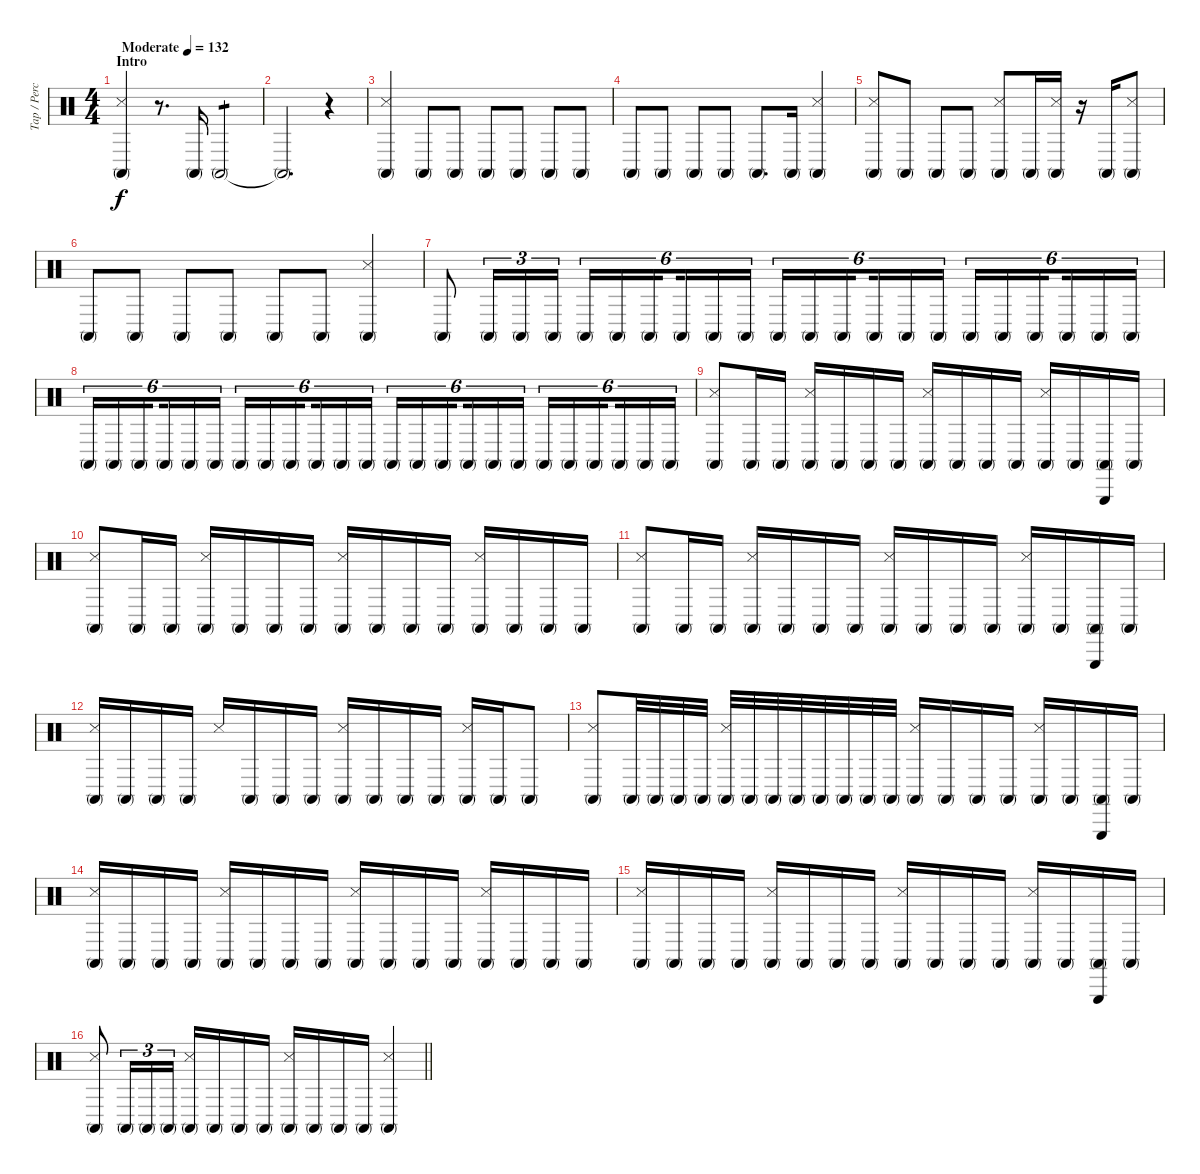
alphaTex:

\track ("Tap / Percussion" "Tap / Perc") {instrument percussion}
\staff {score}
\articulation defaults
\ts (4 4)
\section ("" "Intro")
\tempo (132 "Moderate")
\clef neutral
\ks c
("Conga high (mute)" "Snare (side stick) 3").4{dy f} r.8{d} "Conga high (mute)".16 "Conga high (mute)".2{tp 1} |
"Conga high (mute)"{t}.2{d} r.4 |
("Conga high (mute)" "Snare (side stick) 3").4 "Conga high (mute)".8 "Conga high (mute)".8 "Conga high (mute)".8 "Conga high (mute)".8 "Conga high (mute)".8 "Conga high (mute)".8 |
"Conga high (mute)".8 "Conga high (mute)".8 "Conga high (mute)".8 "Conga high (mute)".8 "Conga high (mute)".8{d} "Conga high (mute)".16 ("Conga high (mute)" "Snare (side stick) 3").4 |
("Conga high (mute)" "Snare (side stick) 3").8 "Conga high (mute)".8 "Conga high (mute)".8 "Conga high (mute)".8 ("Conga high (mute)" "Snare (side stick) 3").8 "Conga high (mute)".16 ("Conga high (mute)" "Snare (side stick) 3").16 r.16 "Conga high (mute)".16 ("Conga high (mute)" "Snare (side stick) 3").8 |
"Conga high (mute)".8 "Conga high (mute)".8 "Conga high (mute)".8 "Conga high (mute)".8 "Conga high (mute)".8 "Conga high (mute)".8 ("Conga high (mute)" "Snare (side stick) 3").4 |
"Conga high (mute)".8 "Conga high (mute)".16{tu (3 2)} "Conga high (mute)".16{tu (3 2)} "Conga high (mute)".16{tu (3 2)} "Conga high (mute)".16{tu (6 4)} "Conga high (mute)".16{tu (6 4)} "Conga high (mute)".16{tu (6 4) beam splitsecondary} "Conga high (mute)".16{tu (6 4)} "Conga high (mute)".16{tu (6 4)} "Conga high (mute)".16{tu (6 4)} "Conga high (mute)".16{tu (6 4)} "Conga high (mute)".16{tu (6 4)} "Conga high (mute)".16{tu (6 4) beam splitsecondary} "Conga high (mute)".16{tu (6 4)} "Conga high (mute)".16{tu (6 4)} "Conga high (mute)".16{tu (6 4)} "Conga high (mute)".16{tu (6 4)} "Conga high (mute)".16{tu (6 4)} "Conga high (mute)".16{tu (6 4) beam splitsecondary} "Conga high (mute)".16{tu (6 4)} "Conga high (mute)".16{tu (6 4)} "Conga high (mute)".16{tu (6 4)} |
"Conga high (mute)".16{tu (6 4)} "Conga high (mute)".16{tu (6 4)} "Conga high (mute)".16{tu (6 4) beam splitsecondary} "Conga high (mute)".16{tu (6 4)} "Conga high (mute)".16{tu (6 4)} "Conga high (mute)".16{tu (6 4)} "Conga high (mute)".16{tu (6 4)} "Conga high (mute)".16{tu (6 4)} "Conga high (mute)".16{tu (6 4) beam splitsecondary} "Conga high (mute)".16{tu (6 4)} "Conga high (mute)".16{tu (6 4)} "Conga high (mute)".16{tu (6 4)} "Conga high (mute)".16{tu (6 4)} "Conga high (mute)".16{tu (6 4)} "Conga high (mute)".16{tu (6 4) beam splitsecondary} "Conga high (mute)".16{tu (6 4)} "Conga high (mute)".16{tu (6 4)} "Conga high (mute)".16{tu (6 4)} "Conga high (mute)".16{tu (6 4)} "Conga high (mute)".16{tu (6 4)} "Conga high (mute)".16{tu (6 4) beam splitsecondary} "Conga high (mute)".16{tu (6 4)} "Conga high (mute)".16{tu (6 4)} "Conga high (mute)".16{tu (6 4)} |
("Conga high (mute)" "Snare (side stick) 3").8 "Conga high (mute)".16 "Conga high (mute)".16 ("Conga high (mute)" "Snare (side stick) 3").16 "Conga high (mute)".16 "Conga high (mute)".16 "Conga high (mute)".16 ("Conga high (mute)" "Snare (side stick) 3").16 "Conga high (mute)".16 "Conga high (mute)".16 "Conga high (mute)".16 ("Conga high (mute)" "Snare (side stick) 3").16 "Conga high (mute)".16 ("Conga high (mute)" "Triangle (hit)").16 "Conga high (mute)".16 |
("Conga high (mute)" "Snare (side stick) 3").8 "Conga high (mute)".16 "Conga high (mute)".16 ("Conga high (mute)" "Snare (side stick) 3").16 "Conga high (mute)".16 "Conga high (mute)".16 "Conga high (mute)".16 ("Conga high (mute)" "Snare (side stick) 3").16 "Conga high (mute)".16 "Conga high (mute)".16 "Conga high (mute)".16 ("Conga high (mute)" "Snare (side stick) 3").16 "Conga high (mute)".16 "Conga high (mute)".16 "Conga high (mute)".16 |
("Conga high (mute)" "Snare (side stick) 3").8 "Conga high (mute)".16 "Conga high (mute)".16 ("Conga high (mute)" "Snare (side stick) 3").16 "Conga high (mute)".16 "Conga high (mute)".16 "Conga high (mute)".16 ("Conga high (mute)" "Snare (side stick) 3").16 "Conga high (mute)".16 "Conga high (mute)".16 "Conga high (mute)".16 ("Conga high (mute)" "Snare (side stick) 3").16 "Conga high (mute)".16 ("Conga high (mute)" "Triangle (hit)").16 "Conga high (mute)".16 |
("Conga high (mute)" "Snare (side stick) 3").16 "Conga high (mute)".16 "Conga high (mute)".16 "Conga high (mute)".16 "Snare (side stick) 3".16 "Conga high (mute)".16 "Conga high (mute)".16 "Conga high (mute)".16 ("Conga high (mute)" "Snare (side stick) 3").16 "Conga high (mute)".16 "Conga high (mute)".16 "Conga high (mute)".16 ("Conga high (mute)" "Snare (side stick) 3").16 "Conga high (mute)".16 "Conga high (mute)".8 |
("Conga high (mute)" "Snare (side stick) 3").8 "Conga high (mute)".32 "Conga high (mute)".32 "Conga high (mute)".32 "Conga high (mute)".32 ("Conga high (mute)" "Snare (side stick) 3").32 "Conga high (mute)".32 "Conga high (mute)".32 "Conga high (mute)".32 "Conga high (mute)".32 "Conga high (mute)".32 "Conga high (mute)".32 "Conga high (mute)".32 ("Conga high (mute)" "Snare (side stick) 3").16 "Conga high (mute)".16 "Conga high (mute)".16 "Conga high (mute)".16 ("Conga high (mute)" "Snare (side stick) 3").16 "Conga high (mute)".16 ("Conga high (mute)" "Triangle (hit)").16 "Conga high (mute)".16 |
("Conga high (mute)" "Snare (side stick) 3").16 "Conga high (mute)".16 "Conga high (mute)".16 "Conga high (mute)".16 ("Conga high (mute)" "Snare (side stick) 3").16 "Conga high (mute)".16 "Conga high (mute)".16 "Conga high (mute)".16 ("Conga high (mute)" "Snare (side stick) 3").16 "Conga high (mute)".16 "Conga high (mute)".16 "Conga high (mute)".16 ("Conga high (mute)" "Snare (side stick) 3").16 "Conga high (mute)".16 "Conga high (mute)".16 "Conga high (mute)".16 |
("Conga high (mute)" "Snare (side stick) 3").16 "Conga high (mute)".16 "Conga high (mute)".16 "Conga high (mute)".16 ("Conga high (mute)" "Snare (side stick) 3").16 "Conga high (mute)".16 "Conga high (mute)".16 "Conga high (mute)".16 ("Conga high (mute)" "Snare (side stick) 3").16 "Conga high (mute)".16 "Conga high (mute)".16 "Conga high (mute)".16 ("Conga high (mute)" "Snare (side stick) 3").16 "Conga high (mute)".16 ("Conga high (mute)" "Triangle (hit)").16 "Conga high (mute)".16 |
\barLineRight lightlight
("Conga high (mute)" "Snare (side stick) 3").8 "Conga high (mute)".16{tu (3 2)} "Conga high (mute)".16{tu (3 2)} "Conga high (mute)".16{tu (3 2)} ("Conga high (mute)" "Snare (side stick) 3").16 "Conga high (mute)".16 "Conga high (mute)".16 "Conga high (mute)".16 ("Conga high (mute)" "Snare (side stick) 3").16 "Conga high (mute)".16 "Conga high (mute)".16 "Conga high (mute)".16 ("Conga high (mute)" "Snare (side stick) 3").4
